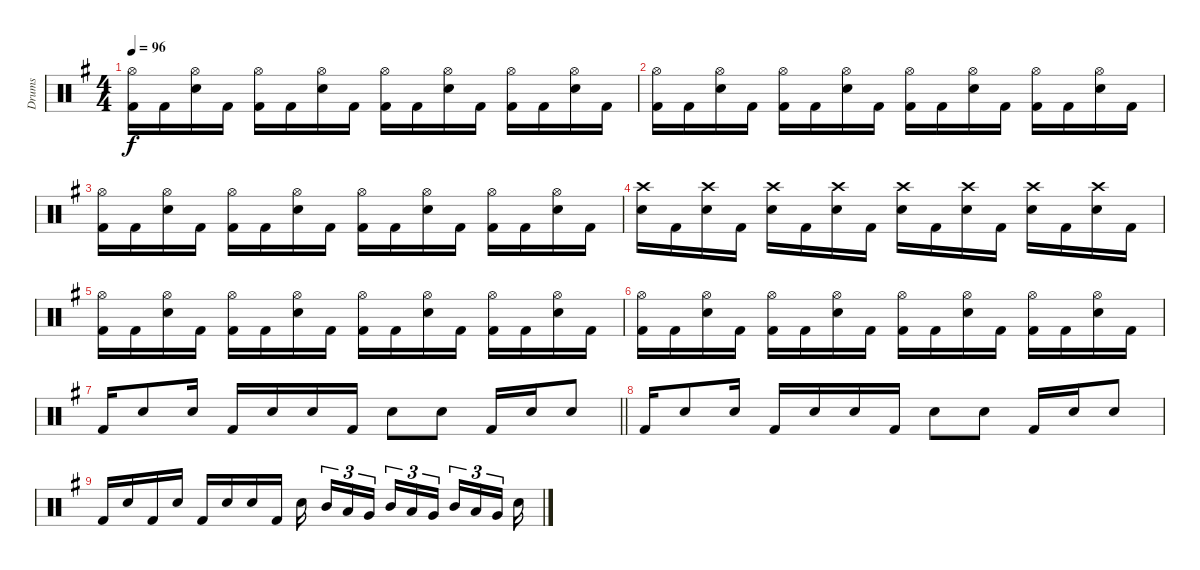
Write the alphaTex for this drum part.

\track ("Drums" "Drums") {instrument percussion}
\staff {score}
\articulation defaults
\ts (4 4)
\tempo 96
\clef neutral
\ks g
("Hi-Hat (open)" "Kick (hit) 2").16{dy f} "Kick (hit) 2".16 ("Hi-Hat (open)" "Electric Snare (hit)").16 "Kick (hit) 2".16 ("Hi-Hat (open)" "Kick (hit) 2").16 "Kick (hit) 2".16 ("Hi-Hat (open)" "Electric Snare (hit)").16 "Kick (hit) 2".16 ("Hi-Hat (open)" "Kick (hit) 2").16 "Kick (hit) 2".16 ("Hi-Hat (open)" "Electric Snare (hit)").16 "Kick (hit) 2".16 ("Hi-Hat (open)" "Kick (hit) 2").16 "Kick (hit) 2".16 ("Hi-Hat (open)" "Electric Snare (hit)").16 "Kick (hit) 2".16 |
("Hi-Hat (open)" "Kick (hit) 2").16 "Kick (hit) 2".16 ("Hi-Hat (open)" "Electric Snare (hit)").16 "Kick (hit) 2".16 ("Hi-Hat (open)" "Kick (hit) 2").16 "Kick (hit) 2".16 ("Hi-Hat (open)" "Electric Snare (hit)").16 "Kick (hit) 2".16 ("Hi-Hat (open)" "Kick (hit) 2").16 "Kick (hit) 2".16 ("Hi-Hat (open)" "Electric Snare (hit)").16 "Kick (hit) 2".16 ("Hi-Hat (open)" "Kick (hit) 2").16 "Kick (hit) 2".16 ("Hi-Hat (open)" "Electric Snare (hit)").16 "Kick (hit) 2".16 |
("Hi-Hat (open)" "Kick (hit) 2").16 "Kick (hit) 2".16 ("Hi-Hat (open)" "Electric Snare (hit)").16 "Kick (hit) 2".16 ("Hi-Hat (open)" "Kick (hit) 2").16 "Kick (hit) 2".16 ("Hi-Hat (open)" "Electric Snare (hit)").16 "Kick (hit) 2".16 ("Hi-Hat (open)" "Kick (hit) 2").16 "Kick (hit) 2".16 ("Hi-Hat (open)" "Electric Snare (hit)").16 "Kick (hit) 2".16 ("Hi-Hat (open)" "Kick (hit) 2").16 "Kick (hit) 2".16 ("Hi-Hat (open)" "Electric Snare (hit)").16 "Kick (hit) 2".16 |
("Crash high (hit)" "Electric Snare (hit)").16 "Kick (hit) 2".16 ("Crash high (hit)" "Electric Snare (hit)").16 "Kick (hit) 2".16 ("Crash high (hit)" "Electric Snare (hit)").16 "Kick (hit) 2".16 ("Crash high (hit)" "Electric Snare (hit)").16 "Kick (hit) 2".16 ("Crash high (hit)" "Electric Snare (hit)").16 "Kick (hit) 2".16 ("Crash high (hit)" "Electric Snare (hit)").16 "Kick (hit) 2".16 ("Crash high (hit)" "Electric Snare (hit)").16 "Kick (hit) 2".16 ("Crash high (hit)" "Electric Snare (hit)").16 "Kick (hit) 2".16 |
("Hi-Hat (open)" "Kick (hit) 2").16 "Kick (hit) 2".16 ("Hi-Hat (open)" "Electric Snare (hit)").16 "Kick (hit) 2".16 ("Hi-Hat (open)" "Kick (hit) 2").16 "Kick (hit) 2".16 ("Hi-Hat (open)" "Electric Snare (hit)").16 "Kick (hit) 2".16 ("Hi-Hat (open)" "Kick (hit) 2").16 "Kick (hit) 2".16 ("Hi-Hat (open)" "Electric Snare (hit)").16 "Kick (hit) 2".16 ("Hi-Hat (open)" "Kick (hit) 2").16 "Kick (hit) 2".16 ("Hi-Hat (open)" "Electric Snare (hit)").16 "Kick (hit) 2".16 |
("Hi-Hat (open)" "Kick (hit) 2").16 "Kick (hit) 2".16 ("Hi-Hat (open)" "Electric Snare (hit)").16 "Kick (hit) 2".16 ("Hi-Hat (open)" "Kick (hit) 2").16 "Kick (hit) 2".16 ("Hi-Hat (open)" "Electric Snare (hit)").16 "Kick (hit) 2".16 ("Hi-Hat (open)" "Kick (hit) 2").16 "Kick (hit) 2".16 ("Hi-Hat (open)" "Electric Snare (hit)").16 "Kick (hit) 2".16 ("Hi-Hat (open)" "Kick (hit) 2").16 "Kick (hit) 2".16 ("Hi-Hat (open)" "Electric Snare (hit)").16 "Kick (hit) 2".16 |
\barLineRight lightlight "Kick (hit) 2".16 "Electric Snare (hit)".8 "Electric Snare (hit)".16 "Kick (hit) 2".16 "Electric Snare (hit)".16 "Electric Snare (hit)".16 "Kick (hit) 2".16 "Electric Snare (hit)".8 "Electric Snare (hit)".8 "Kick (hit) 2".16 "Electric Snare (hit)".16 "Electric Snare (hit)".8
|
"Kick (hit) 2".16 "Electric Snare (hit)".8 "Electric Snare (hit)".16 "Kick (hit) 2".16 "Electric Snare (hit)".16 "Electric Snare (hit)".16 "Kick (hit) 2".16 "Electric Snare (hit)".8 "Electric Snare (hit)".8 "Kick (hit) 2".16 "Electric Snare (hit)".16 "Electric Snare (hit)".8 |
"Kick (hit) 2".16 "Electric Snare (hit)".16 "Kick (hit) 2".16 "Electric Snare (hit)".16 "Kick (hit) 2".16 "Electric Snare (hit)".16 "Electric Snare (hit)".16 "Kick (hit) 2".16 "Electric Snare (hit)".16{beam splitsecondary} "Mid Tom (hit)".16{tu (3 2)} "Low Tom (hit)".16{tu (3 2)} "Very Low Tom (hit)".16{tu (3 2) beam splitsecondary} "Mid Tom (hit)".16{tu (3 2)} "Low Tom (hit)".16{tu (3 2)} "Very Low Tom (hit)".16{tu (3 2) beam splitsecondary} "Mid Tom (hit)".16{tu (3 2)} "Low Tom (hit)".16{tu (3 2)} "Very Low Tom (hit)".16{tu (3 2) beam splitsecondary} "Electric Snare (hit)".16
